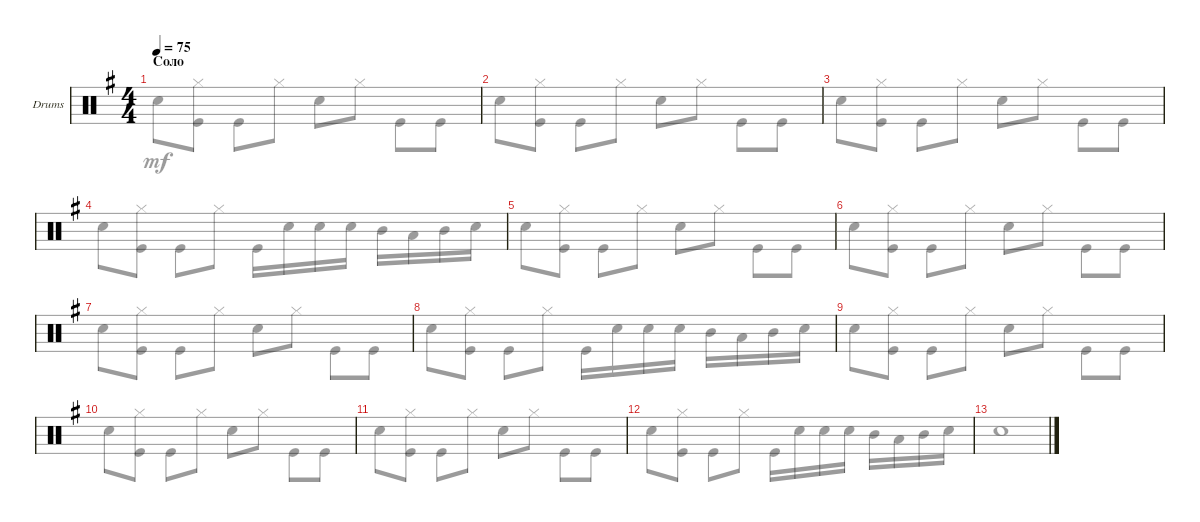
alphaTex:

\bracketExtendMode groupsimilarinstruments
\firstSystemTrackNameOrientation horizontal
\otherSystemsTrackNameOrientation horizontal
\track ("Drumkit" "Drums") {instrument percussion}
\staff {score}
\articulation defaults
\voice
\ts (4 4)
\section ("" "Соло")
\tempo 75
\clef neutral
\ks eminor
|
|
|
|
|
|
|
|
|
|
|
|
|
|
|
\voice
\clef neutral
\ks eminor "Snare (hit) 2".8{dy mf}
("Hi-Hat (closed)" "Kick (hit)").8 "Kick (hit)".8 "Hi-Hat (closed)".8 "Snare (hit) 2".8 "Hi-Hat (closed)".8 "Kick (hit)".8 "Kick (hit)".8 |
"Snare (hit) 2".8 ("Hi-Hat (closed)" "Kick (hit)").8 "Kick (hit)".8 "Hi-Hat (closed)".8 "Snare (hit) 2".8 "Hi-Hat (closed)".8 "Kick (hit)".8 "Kick (hit)".8 |
"Snare (hit) 2".8 ("Hi-Hat (closed)" "Kick (hit)").8 "Kick (hit)".8 "Hi-Hat (closed)".8 "Snare (hit) 2".8 "Hi-Hat (closed)".8 "Kick (hit)".8 "Kick (hit)".8 |
"Snare (hit) 2".8 ("Hi-Hat (closed)" "Kick (hit)").8 "Kick (hit)".8 "Hi-Hat (closed)".8 "Kick (hit)".16 "Snare (hit) 2".16 "Snare (hit) 2".16 "Snare (hit) 2".16 "Mid Tom (hit)".16 "Low Tom (hit)".16 "Mid Tom (hit)".16 "Snare (hit) 2".16 |
"Snare (hit) 2".8 ("Hi-Hat (closed)" "Kick (hit)").8 "Kick (hit)".8 "Hi-Hat (closed)".8 "Snare (hit) 2".8 "Hi-Hat (closed)".8 "Kick (hit)".8 "Kick (hit)".8 |
"Snare (hit) 2".8 ("Hi-Hat (closed)" "Kick (hit)").8 "Kick (hit)".8 "Hi-Hat (closed)".8 "Snare (hit) 2".8 "Hi-Hat (closed)".8 "Kick (hit)".8 "Kick (hit)".8 |
"Snare (hit) 2".8 ("Hi-Hat (closed)" "Kick (hit)").8 "Kick (hit)".8 "Hi-Hat (closed)".8 "Snare (hit) 2".8 "Hi-Hat (closed)".8 "Kick (hit)".8 "Kick (hit)".8 |
"Snare (hit) 2".8 ("Hi-Hat (closed)" "Kick (hit)").8 "Kick (hit)".8 "Hi-Hat (closed)".8 "Kick (hit)".16 "Snare (hit) 2".16 "Snare (hit) 2".16 "Snare (hit) 2".16 "Mid Tom (hit)".16 "Low Tom (hit)".16 "Mid Tom (hit)".16 "Snare (hit) 2".16 |
"Snare (hit) 2".8 ("Hi-Hat (closed)" "Kick (hit)").8 "Kick (hit)".8 "Hi-Hat (closed)".8 "Snare (hit) 2".8 "Hi-Hat (closed)".8 "Kick (hit)".8 "Kick (hit)".8 |
"Snare (hit) 2".8 ("Hi-Hat (closed)" "Kick (hit)").8 "Kick (hit)".8 "Hi-Hat (closed)".8 "Snare (hit) 2".8 "Hi-Hat (closed)".8 "Kick (hit)".8 "Kick (hit)".8 |
"Snare (hit) 2".8 ("Hi-Hat (closed)" "Kick (hit)").8 "Kick (hit)".8 "Hi-Hat (closed)".8 "Snare (hit) 2".8 "Hi-Hat (closed)".8 "Kick (hit)".8 "Kick (hit)".8 |
"Snare (hit) 2".8 ("Hi-Hat (closed)" "Kick (hit)").8 "Kick (hit)".8 "Hi-Hat (closed)".8 "Kick (hit)".16 "Snare (hit) 2".16 "Snare (hit) 2".16 "Snare (hit) 2".16 "Mid Tom (hit)".16 "Low Tom (hit)".16 "Mid Tom (hit)".16 "Snare (hit) 2".16 |
"Snare (hit) 2".1 |
|
|
